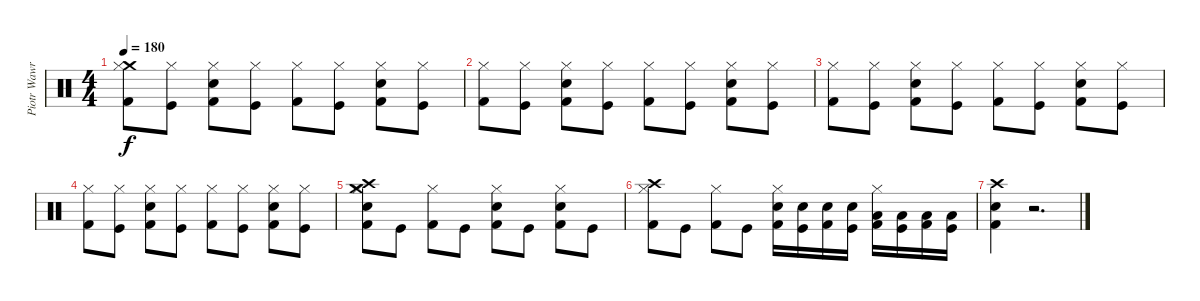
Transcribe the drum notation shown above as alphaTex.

\track ("Piotr Wawrzeniuk" "Piotr Wawr") {instrument percussion}
\staff {score}
\articulation defaults
\ts (4 4)
\tempo 180
\clef neutral
\ks c
("Crash medium (hit)" "Hi-Hat (closed)" "Kick (hit) 2").8{dy f} ("Hi-Hat (closed)" "Kick (hit)").8 ("Snare (hit) 2" "Hi-Hat (closed)" "Kick (hit) 2").8 ("Hi-Hat (closed)" "Kick (hit)").8 ("Hi-Hat (closed)" "Kick (hit) 2").8 ("Hi-Hat (closed)" "Kick (hit)").8 ("Snare (hit) 2" "Hi-Hat (closed)" "Kick (hit) 2").8 ("Hi-Hat (closed)" "Kick (hit)").8 |
("Hi-Hat (closed)" "Kick (hit) 2").8 ("Hi-Hat (closed)" "Kick (hit)").8 ("Snare (hit) 2" "Hi-Hat (closed)" "Kick (hit) 2").8 ("Hi-Hat (closed)" "Kick (hit)").8 ("Hi-Hat (closed)" "Kick (hit) 2").8 ("Hi-Hat (closed)" "Kick (hit)").8 ("Snare (hit) 2" "Hi-Hat (closed)" "Kick (hit) 2").8 ("Hi-Hat (closed)" "Kick (hit)").8 |
("Hi-Hat (closed)" "Kick (hit) 2").8 ("Hi-Hat (closed)" "Kick (hit)").8 ("Snare (hit) 2" "Hi-Hat (closed)" "Kick (hit) 2").8 ("Hi-Hat (closed)" "Kick (hit)").8 ("Hi-Hat (closed)" "Kick (hit) 2").8 ("Hi-Hat (closed)" "Kick (hit)").8 ("Snare (hit) 2" "Hi-Hat (closed)" "Kick (hit) 2").8 ("Hi-Hat (closed)" "Kick (hit)").8 |
("Hi-Hat (closed)" "Kick (hit) 2").8 ("Hi-Hat (closed)" "Kick (hit)").8 ("Snare (hit) 2" "Hi-Hat (closed)" "Kick (hit) 2").8 ("Hi-Hat (closed)" "Kick (hit)").8 ("Hi-Hat (closed)" "Kick (hit) 2").8 ("Hi-Hat (closed)" "Kick (hit)").8 ("Snare (hit) 2" "Hi-Hat (closed)" "Kick (hit) 2").8 ("Hi-Hat (closed)" "Kick (hit)").8 |
("Crash high (hit)" "Crash medium (hit)" "Snare (hit) 2" "Hi-Hat (closed)" "Kick (hit) 2").8 "Kick (hit)".8 ("Hi-Hat (closed)" "Kick (hit) 2").8 "Kick (hit)".8 ("Snare (hit) 2" "Hi-Hat (closed)" "Kick (hit) 2").8 "Kick (hit)".8 ("Snare (hit) 2" "Hi-Hat (closed)" "Kick (hit) 2").8 "Kick (hit)".8 |
("Crash high (hit)" "Hi-Hat (closed)" "Kick (hit) 2").8 "Kick (hit)".8 ("Hi-Hat (closed)" "Kick (hit) 2").8 "Kick (hit)".8 ("Snare (hit) 2" "Hi-Hat (closed)" "Kick (hit) 2").16 ("Snare (hit) 2" "Kick (hit)").16 ("Snare (hit) 2" "Kick (hit) 2").16 ("Snare (hit) 2" "Kick (hit)").16 ("Low Tom (hit)" "Hi-Hat (closed)" "Kick (hit) 2").16 ("Low Tom (hit)" "Kick (hit)").16 ("Low Tom (hit)" "Kick (hit) 2").16 ("Low Tom (hit)" "Kick (hit)").16 |
("Crash high (hit)" "Snare (hit) 2" "Kick (hit) 2").4 r.2{d}
